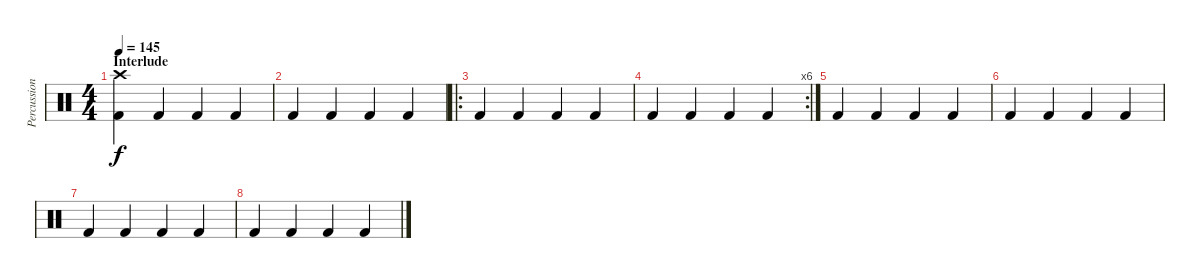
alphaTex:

\track ("Percussion" "Percussion") {instrument percussion}
\staff {score}
\articulation defaults
\ts (4 4)
\section ("" "Interlude")
\tempo 145
\clef neutral
\ks c
("Crash high (hit)" "Kick (hit) 2").4{dy f} "Kick (hit) 2".4 "Kick (hit) 2".4 "Kick (hit) 2".4 |
"Kick (hit) 2".4 "Kick (hit) 2".4 "Kick (hit) 2".4 "Kick (hit) 2".4 |
\ro "Kick (hit) 2".4 "Kick (hit) 2".4 "Kick (hit) 2".4 "Kick (hit) 2".4
|
\rc 6 "Kick (hit) 2".4 "Kick (hit) 2".4 "Kick (hit) 2".4 "Kick (hit) 2".4
|
"Kick (hit) 2".4 "Kick (hit) 2".4 "Kick (hit) 2".4 "Kick (hit) 2".4 |
"Kick (hit) 2".4 "Kick (hit) 2".4 "Kick (hit) 2".4 "Kick (hit) 2".4 |
"Kick (hit) 2".4 "Kick (hit) 2".4 "Kick (hit) 2".4 "Kick (hit) 2".4 |
"Kick (hit) 2".4 "Kick (hit) 2".4 "Kick (hit) 2".4 "Kick (hit) 2".4
